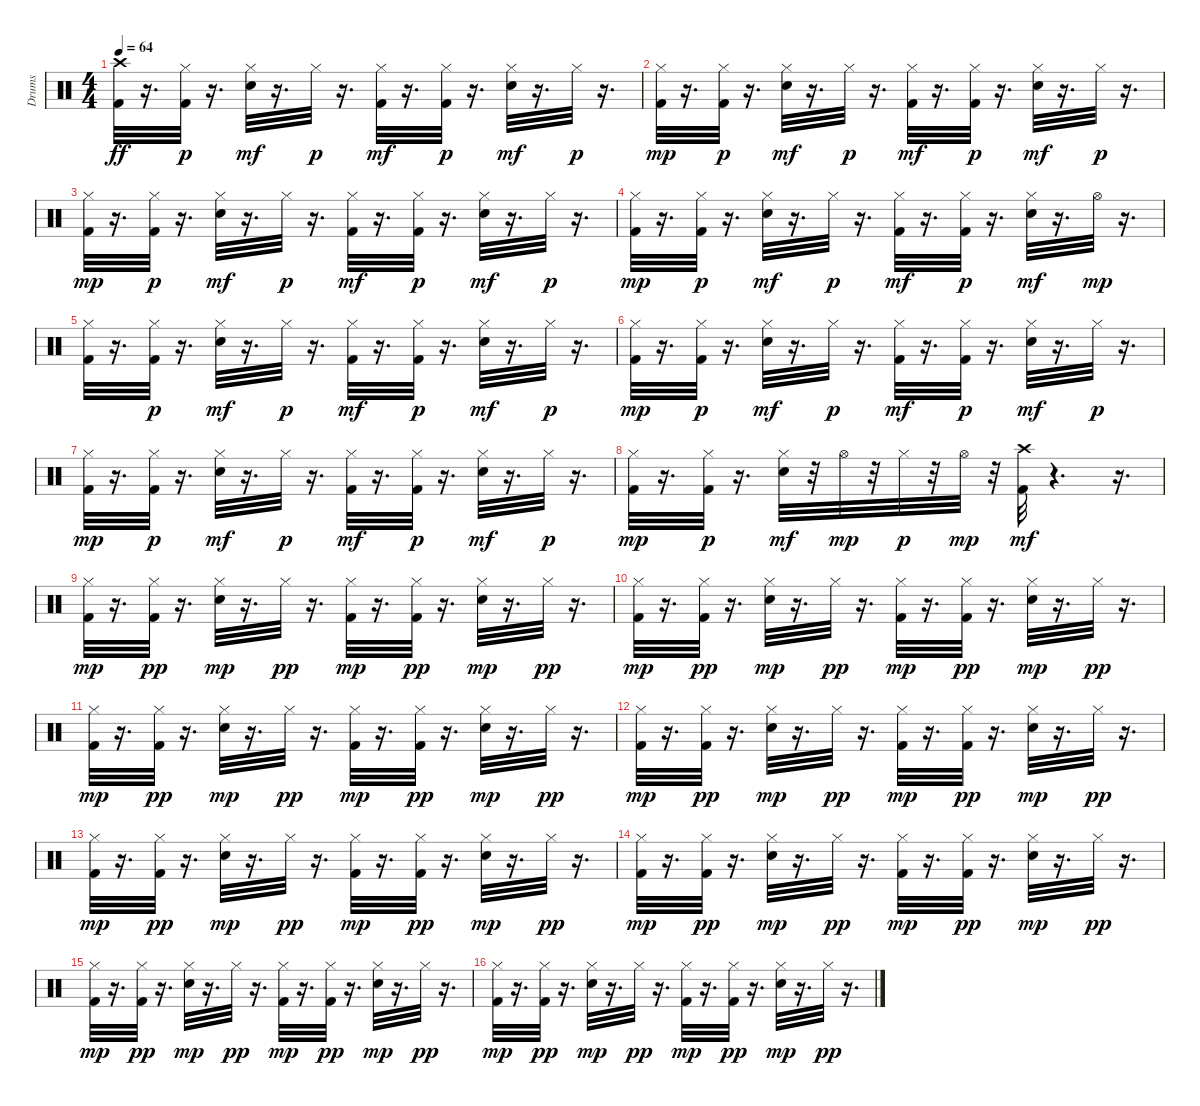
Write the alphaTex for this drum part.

\track ("Drums" "Drums") {instrument percussion}
\staff {score}
\articulation defaults
\ts (4 4)
\tempo 64
\clef neutral
\ks c
("Kick (hit) 2" "Crash high (hit)").32{dy ff} r.16{d} ("Kick (hit) 2" "Hi-Hat (closed)").32{dy p} r.16{d} ("Snare (hit) 2" "Hi-Hat (closed)").32{dy mf} r.16{d} "Hi-Hat (closed)".32{dy p} r.16{d} ("Kick (hit) 2" "Hi-Hat (closed)").32{dy mf} r.16{d} ("Kick (hit) 2" "Hi-Hat (closed)").32{dy p} r.16{d} ("Snare (hit) 2" "Hi-Hat (closed)").32{dy mf} r.16{d} "Hi-Hat (closed)".32{dy p} r.16{d} |
("Kick (hit) 2" "Hi-Hat (closed)").32{dy mp} r.16{d} ("Kick (hit) 2" "Hi-Hat (closed)").32{dy p} r.16{d} ("Snare (hit) 2" "Hi-Hat (closed)").32{dy mf} r.16{d} "Hi-Hat (closed)".32{dy p} r.16{d} ("Kick (hit) 2" "Hi-Hat (closed)").32{dy mf} r.16{d} ("Kick (hit) 2" "Hi-Hat (closed)").32{dy p} r.16{d} ("Snare (hit) 2" "Hi-Hat (closed)").32{dy mf} r.16{d} "Hi-Hat (closed)".32{dy p} r.16{d} |
("Kick (hit) 2" "Hi-Hat (closed)").32{dy mp} r.16{d} ("Kick (hit) 2" "Hi-Hat (closed)").32{dy p} r.16{d} ("Snare (hit) 2" "Hi-Hat (closed)").32{dy mf} r.16{d} "Hi-Hat (closed)".32{dy p} r.16{d} ("Kick (hit) 2" "Hi-Hat (closed)").32{dy mf} r.16{d} ("Kick (hit) 2" "Hi-Hat (closed)").32{dy p} r.16{d} ("Snare (hit) 2" "Hi-Hat (closed)").32{dy mf} r.16{d} "Hi-Hat (closed)".32{dy p} r.16{d} |
("Kick (hit) 2" "Hi-Hat (closed)").32{dy mp} r.16{d} ("Kick (hit) 2" "Hi-Hat (closed)").32{dy p} r.16{d} ("Snare (hit) 2" "Hi-Hat (closed)").32{dy mf} r.16{d} "Hi-Hat (closed)".32{dy p} r.16{d} ("Kick (hit) 2" "Hi-Hat (closed)").32{dy mf} r.16{d} ("Kick (hit) 2" "Hi-Hat (closed)").32{dy p} r.16{d} ("Snare (hit) 2" "Hi-Hat (closed)").32{dy mf} r.16{d} "Hi-Hat (open)".32{dy mp} r.16{d} |
("Kick (hit) 2" "Hi-Hat (closed)").32 r.16{d} ("Kick (hit) 2" "Hi-Hat (closed)").32{dy p} r.16{d} ("Snare (hit) 2" "Hi-Hat (closed)").32{dy mf} r.16{d} "Hi-Hat (closed)".32{dy p} r.16{d} ("Kick (hit) 2" "Hi-Hat (closed)").32{dy mf} r.16{d} ("Kick (hit) 2" "Hi-Hat (closed)").32{dy p} r.16{d} ("Snare (hit) 2" "Hi-Hat (closed)").32{dy mf} r.16{d} "Hi-Hat (closed)".32{dy p} r.16{d} |
("Kick (hit) 2" "Hi-Hat (closed)").32{dy mp} r.16{d} ("Kick (hit) 2" "Hi-Hat (closed)").32{dy p} r.16{d} ("Snare (hit) 2" "Hi-Hat (closed)").32{dy mf} r.16{d} "Hi-Hat (closed)".32{dy p} r.16{d} ("Kick (hit) 2" "Hi-Hat (closed)").32{dy mf} r.16{d} ("Kick (hit) 2" "Hi-Hat (closed)").32{dy p} r.16{d} ("Snare (hit) 2" "Hi-Hat (closed)").32{dy mf} r.16{d} "Hi-Hat (closed)".32{dy p} r.16{d} |
("Kick (hit) 2" "Hi-Hat (closed)").32{dy mp} r.16{d} ("Kick (hit) 2" "Hi-Hat (closed)").32{dy p} r.16{d} ("Snare (hit) 2" "Hi-Hat (closed)").32{dy mf} r.16{d} "Hi-Hat (closed)".32{dy p} r.16{d} ("Kick (hit) 2" "Hi-Hat (closed)").32{dy mf} r.16{d} ("Kick (hit) 2" "Hi-Hat (closed)").32{dy p} r.16{d} ("Snare (hit) 2" "Hi-Hat (closed)").32{dy mf} r.16{d} "Hi-Hat (closed)".32{dy p} r.16{d} |
("Kick (hit) 2" "Hi-Hat (closed)").32{dy mp} r.16{d} ("Kick (hit) 2" "Hi-Hat (closed)").32{dy p} r.16{d} ("Snare (hit) 2" "Hi-Hat (closed)").32{dy mf} r.32 "Hi-Hat (open)".32{dy mp} r.32 "Hi-Hat (closed)".32{dy p} r.32 "Hi-Hat (open)".32{dy mp} r.32 ("Kick (hit) 2" "Crash high (hit)").32{dy mf} r.4{d} r.16{d} |
("Kick (hit) 2" "Hi-Hat (closed)").32{dy mp} r.16{d} ("Kick (hit) 2" "Hi-Hat (closed)").32{dy pp} r.16{d} ("Snare (hit) 2" "Hi-Hat (closed)").32{dy mp} r.16{d} "Hi-Hat (closed)".32{dy pp} r.16{d} ("Kick (hit) 2" "Hi-Hat (closed)").32{dy mp} r.16{d} ("Kick (hit) 2" "Hi-Hat (closed)").32{dy pp} r.16{d} ("Snare (hit) 2" "Hi-Hat (closed)").32{dy mp} r.16{d} "Hi-Hat (closed)".32{dy pp} r.16{d} |
("Kick (hit) 2" "Hi-Hat (closed)").32{dy mp} r.16{d} ("Kick (hit) 2" "Hi-Hat (closed)").32{dy pp} r.16{d} ("Snare (hit) 2" "Hi-Hat (closed)").32{dy mp} r.16{d} "Hi-Hat (closed)".32{dy pp} r.16{d} ("Kick (hit) 2" "Hi-Hat (closed)").32{dy mp} r.16{d} ("Kick (hit) 2" "Hi-Hat (closed)").32{dy pp} r.16{d} ("Snare (hit) 2" "Hi-Hat (closed)").32{dy mp} r.16{d} "Hi-Hat (closed)".32{dy pp} r.16{d} |
("Kick (hit) 2" "Hi-Hat (closed)").32{dy mp} r.16{d} ("Kick (hit) 2" "Hi-Hat (closed)").32{dy pp} r.16{d} ("Snare (hit) 2" "Hi-Hat (closed)").32{dy mp} r.16{d} "Hi-Hat (closed)".32{dy pp} r.16{d} ("Kick (hit) 2" "Hi-Hat (closed)").32{dy mp} r.16{d} ("Kick (hit) 2" "Hi-Hat (closed)").32{dy pp} r.16{d} ("Snare (hit) 2" "Hi-Hat (closed)").32{dy mp} r.16{d} "Hi-Hat (closed)".32{dy pp} r.16{d} |
("Kick (hit) 2" "Hi-Hat (closed)").32{dy mp} r.16{d} ("Kick (hit) 2" "Hi-Hat (closed)").32{dy pp} r.16{d} ("Snare (hit) 2" "Hi-Hat (closed)").32{dy mp} r.16{d} "Hi-Hat (closed)".32{dy pp} r.16{d} ("Kick (hit) 2" "Hi-Hat (closed)").32{dy mp} r.16{d} ("Kick (hit) 2" "Hi-Hat (closed)").32{dy pp} r.16{d} ("Snare (hit) 2" "Hi-Hat (closed)").32{dy mp} r.16{d} "Hi-Hat (closed)".32{dy pp} r.16{d} |
("Kick (hit) 2" "Hi-Hat (closed)").32{dy mp} r.16{d} ("Kick (hit) 2" "Hi-Hat (closed)").32{dy pp} r.16{d} ("Snare (hit) 2" "Hi-Hat (closed)").32{dy mp} r.16{d} "Hi-Hat (closed)".32{dy pp} r.16{d} ("Kick (hit) 2" "Hi-Hat (closed)").32{dy mp} r.16{d} ("Kick (hit) 2" "Hi-Hat (closed)").32{dy pp} r.16{d} ("Snare (hit) 2" "Hi-Hat (closed)").32{dy mp} r.16{d} "Hi-Hat (closed)".32{dy pp} r.16{d} |
("Kick (hit) 2" "Hi-Hat (closed)").32{dy mp} r.16{d} ("Kick (hit) 2" "Hi-Hat (closed)").32{dy pp} r.16{d} ("Snare (hit) 2" "Hi-Hat (closed)").32{dy mp} r.16{d} "Hi-Hat (closed)".32{dy pp} r.16{d} ("Kick (hit) 2" "Hi-Hat (closed)").32{dy mp} r.16{d} ("Kick (hit) 2" "Hi-Hat (closed)").32{dy pp} r.16{d} ("Snare (hit) 2" "Hi-Hat (closed)").32{dy mp} r.16{d} "Hi-Hat (closed)".32{dy pp} r.16{d} |
("Kick (hit) 2" "Hi-Hat (closed)").32{dy mp} r.16{d} ("Kick (hit) 2" "Hi-Hat (closed)").32{dy pp} r.16{d} ("Snare (hit) 2" "Hi-Hat (closed)").32{dy mp} r.16{d} "Hi-Hat (closed)".32{dy pp} r.16{d} ("Kick (hit) 2" "Hi-Hat (closed)").32{dy mp} r.16{d} ("Kick (hit) 2" "Hi-Hat (closed)").32{dy pp} r.16{d} ("Snare (hit) 2" "Hi-Hat (closed)").32{dy mp} r.16{d} "Hi-Hat (closed)".32{dy pp} r.16{d} |
("Kick (hit) 2" "Hi-Hat (closed)").32{dy mp} r.16{d} ("Kick (hit) 2" "Hi-Hat (closed)").32{dy pp} r.16{d} ("Snare (hit) 2" "Hi-Hat (closed)").32{dy mp} r.16{d} "Hi-Hat (closed)".32{dy pp} r.16{d} ("Kick (hit) 2" "Hi-Hat (closed)").32{dy mp} r.16{d} ("Kick (hit) 2" "Hi-Hat (closed)").32{dy pp} r.16{d} ("Snare (hit) 2" "Hi-Hat (closed)").32{dy mp} r.16{d} "Hi-Hat (closed)".32{dy pp} r.16{d}
